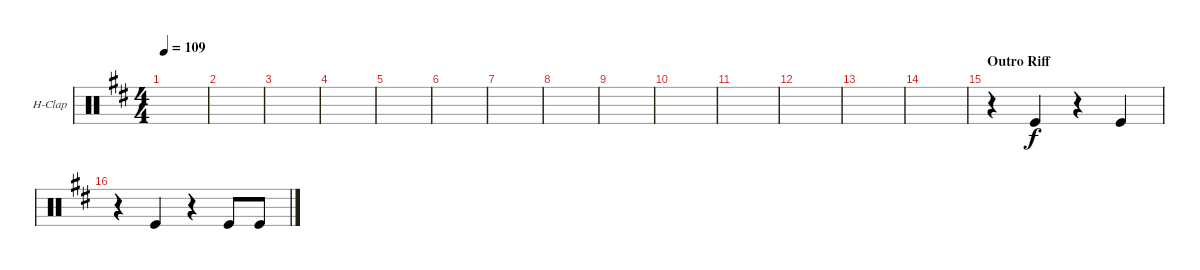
\bracketExtendMode groupsimilarinstruments
\firstSystemTrackNameOrientation horizontal
\otherSystemsTrackNameOrientation horizontal
\track ("Hand Clap" "H-Clap") {instrument percussion}
\staff {score}
\articulation defaults
\ts (4 4)
\tempo 109
\clef neutral
\scale
0.333333
\ks d
|
\scale
0.333333 |
\scale
0.333333 |
\scale
0.333333 |
\scale
0.333333 |
\scale
0.333333 |
\scale
0.333333 |
\scale
0.333333 |
\scale
0.333333 |
\scale
0.333333 |
\scale
0.333333 |
\scale
0.333333 |
\scale
0.333333 |
\scale
0.333333 |
\section ("" "Outro Riff")
\scale
0.333333 r.4 "Kick (hit)".4 r.4 "Kick (hit)".4 |
\scale
0.333333 r.4 "Kick (hit)".4 r.4 "Kick (hit)".8 "Kick (hit)".8
